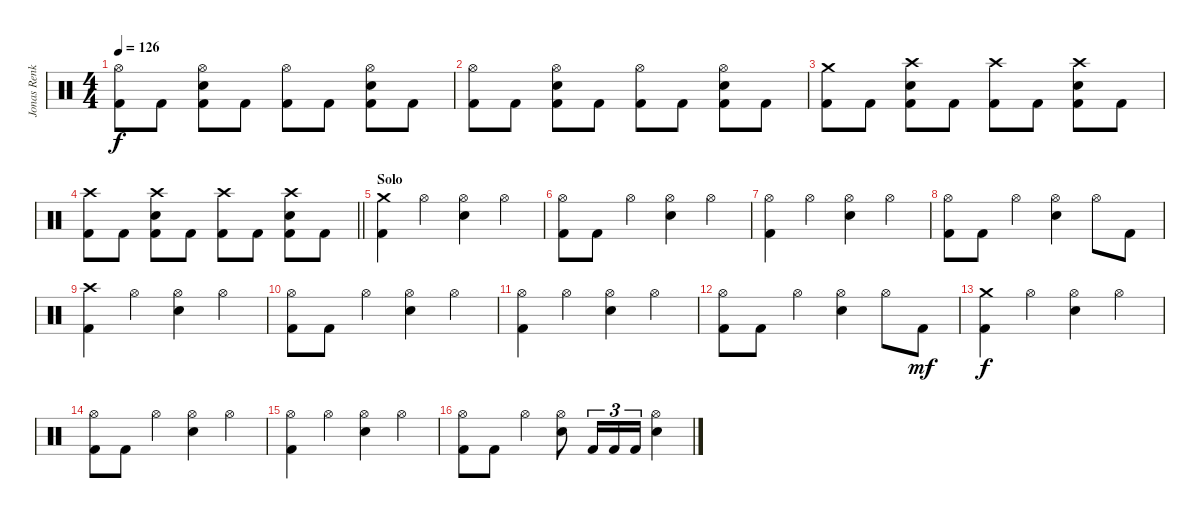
\track ("Jonas Renkse" "Jonas Renk") {instrument percussion}
\staff {score}
\articulation defaults
\ts (4 4)
\tempo 126
\clef neutral
\ks c
("Hi-Hat (open)" "Kick (hit) 2").8{dy f} "Kick (hit) 2".8 ("Hi-Hat (open)" "Electric Snare (hit)" "Kick (hit) 2").8 "Kick (hit) 2".8 ("Hi-Hat (open)" "Kick (hit) 2").8 "Kick (hit) 2".8 ("Hi-Hat (open)" "Electric Snare (hit)" "Kick (hit) 2").8 "Kick (hit) 2".8 |
("Hi-Hat (open)" "Kick (hit) 2").8 "Kick (hit) 2".8 ("Hi-Hat (open)" "Electric Snare (hit)" "Kick (hit) 2").8 "Kick (hit) 2".8 ("Hi-Hat (open)" "Kick (hit) 2").8 "Kick (hit) 2".8 ("Hi-Hat (open)" "Electric Snare (hit)" "Kick (hit) 2").8 "Kick (hit) 2".8 |
("Crash medium (hit)" "Kick (hit) 2").8 "Kick (hit) 2".8 ("Crash high (hit)" "Electric Snare (hit)" "Kick (hit) 2").8 "Kick (hit) 2".8 ("Crash high (hit)" "Kick (hit) 2").8 "Kick (hit) 2".8 ("Crash high (hit)" "Electric Snare (hit)" "Kick (hit) 2").8 "Kick (hit) 2".8 |
\barLineRight lightlight
("Crash high (hit)" "Kick (hit) 2").8 "Kick (hit) 2".8 ("Crash high (hit)" "Electric Snare (hit)" "Kick (hit) 2").8 "Kick (hit) 2".8 ("Crash high (hit)" "Kick (hit) 2").8 "Kick (hit) 2".8 ("Crash high (hit)" "Electric Snare (hit)" "Kick (hit) 2").8 "Kick (hit) 2".8 |
\section ("" "Solo")
("Crash medium (hit)" "Kick (hit) 2").4 "Hi-Hat (open)".4 ("Hi-Hat (open)" "Electric Snare (hit)").4 "Hi-Hat (open)".4 |
("Hi-Hat (open)" "Kick (hit) 2").8 "Kick (hit) 2".8 "Hi-Hat (open)".4 ("Hi-Hat (open)" "Electric Snare (hit)").4 "Hi-Hat (open)".4 |
("Hi-Hat (open)" "Kick (hit) 2").4 "Hi-Hat (open)".4 ("Hi-Hat (open)" "Electric Snare (hit)").4 "Hi-Hat (open)".4 |
("Hi-Hat (open)" "Kick (hit) 2").8 "Kick (hit) 2".8 "Hi-Hat (open)".4 ("Hi-Hat (open)" "Electric Snare (hit)").4 "Hi-Hat (open)".8 "Kick (hit) 2".8 |
("Crash high (hit)" "Kick (hit) 2").4 "Hi-Hat (open)".4 ("Hi-Hat (open)" "Electric Snare (hit)").4 "Hi-Hat (open)".4 |
("Hi-Hat (open)" "Kick (hit) 2").8 "Kick (hit) 2".8 "Hi-Hat (open)".4 ("Hi-Hat (open)" "Electric Snare (hit)").4 "Hi-Hat (open)".4 |
("Hi-Hat (open)" "Kick (hit) 2").4 "Hi-Hat (open)".4 ("Hi-Hat (open)" "Electric Snare (hit)").4 "Hi-Hat (open)".4 |
("Hi-Hat (open)" "Kick (hit) 2").8 "Kick (hit) 2".8 "Hi-Hat (open)".4 ("Hi-Hat (open)" "Electric Snare (hit)").4 "Hi-Hat (open)".8 "Kick (hit) 2".8{dy mf} |
("Crash medium (hit)" "Kick (hit) 2").4{dy f} "Hi-Hat (open)".4 ("Hi-Hat (open)" "Electric Snare (hit)").4 "Hi-Hat (open)".4 |
("Hi-Hat (open)" "Kick (hit) 2").8 "Kick (hit) 2".8 "Hi-Hat (open)".4 ("Hi-Hat (open)" "Electric Snare (hit)").4 "Hi-Hat (open)".4 |
("Hi-Hat (open)" "Kick (hit) 2").4 "Hi-Hat (open)".4 ("Hi-Hat (open)" "Electric Snare (hit)").4 "Hi-Hat (open)".4 |
("Hi-Hat (open)" "Kick (hit) 2").8 "Kick (hit) 2".8 "Hi-Hat (open)".4 ("Hi-Hat (open)" "Electric Snare (hit)").8 "Kick (hit) 2".16{tu (3 2)} "Kick (hit) 2".16{tu (3 2)} "Kick (hit) 2".16{tu (3 2)} ("Hi-Hat (open)" "Electric Snare (hit)").4
